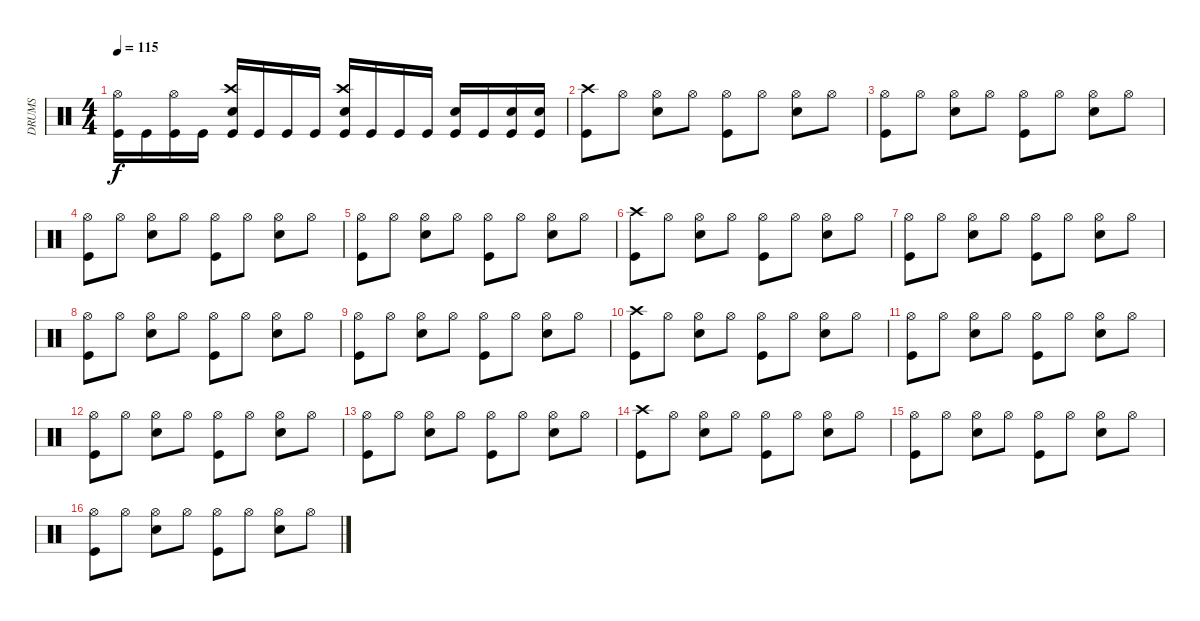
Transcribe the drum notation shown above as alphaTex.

\track ("DRUMS" "DRUMS") {instrument percussion}
\staff {score}
\articulation defaults
\ts (4 4)
\tempo 115
\clef neutral
\ks c
("Hi-Hat (open)" "Kick (hit)").16{dy f} "Kick (hit)".16 ("Hi-Hat (open)" "Kick (hit)").16 "Kick (hit)".16 ("Crash high (hit)" "Snare (hit) 2" "Kick (hit)").16 "Kick (hit)".16 "Kick (hit)".16 "Kick (hit)".16 ("Crash high (hit)" "Snare (hit) 2" "Kick (hit)").16 "Kick (hit)".16 "Kick (hit)".16 "Kick (hit)".16 ("Snare (hit) 2" "Kick (hit)").16 "Kick (hit)".16 ("Snare (hit) 2" "Kick (hit)").16 ("Snare (hit) 2" "Kick (hit)").16 |
("Crash high (hit)" "Kick (hit)").8 "Hi-Hat (open)".8 ("Hi-Hat (open)" "Snare (hit) 2").8 "Hi-Hat (open)".8 ("Hi-Hat (open)" "Kick (hit)").8 "Hi-Hat (open)".8 ("Hi-Hat (open)" "Snare (hit) 2").8 "Hi-Hat (open)".8 |
("Hi-Hat (open)" "Kick (hit)").8 "Hi-Hat (open)".8 ("Hi-Hat (open)" "Snare (hit) 2").8 "Hi-Hat (open)".8 ("Hi-Hat (open)" "Kick (hit)").8 "Hi-Hat (open)".8 ("Hi-Hat (open)" "Snare (hit) 2").8 "Hi-Hat (open)".8 |
("Hi-Hat (open)" "Kick (hit)").8 "Hi-Hat (open)".8 ("Hi-Hat (open)" "Snare (hit) 2").8 "Hi-Hat (open)".8 ("Hi-Hat (open)" "Kick (hit)").8 "Hi-Hat (open)".8 ("Hi-Hat (open)" "Snare (hit) 2").8 "Hi-Hat (open)".8 |
("Hi-Hat (open)" "Kick (hit)").8 "Hi-Hat (open)".8 ("Hi-Hat (open)" "Snare (hit) 2").8 "Hi-Hat (open)".8 ("Hi-Hat (open)" "Kick (hit)").8 "Hi-Hat (open)".8 ("Hi-Hat (open)" "Snare (hit) 2").8 "Hi-Hat (open)".8 |
("Crash high (hit)" "Kick (hit)").8 "Hi-Hat (open)".8 ("Hi-Hat (open)" "Snare (hit) 2").8 "Hi-Hat (open)".8 ("Hi-Hat (open)" "Kick (hit)").8 "Hi-Hat (open)".8 ("Hi-Hat (open)" "Snare (hit) 2").8 "Hi-Hat (open)".8 |
("Hi-Hat (open)" "Kick (hit)").8 "Hi-Hat (open)".8 ("Hi-Hat (open)" "Snare (hit) 2").8 "Hi-Hat (open)".8 ("Hi-Hat (open)" "Kick (hit)").8 "Hi-Hat (open)".8 ("Hi-Hat (open)" "Snare (hit) 2").8 "Hi-Hat (open)".8 |
("Hi-Hat (open)" "Kick (hit)").8 "Hi-Hat (open)".8 ("Hi-Hat (open)" "Snare (hit) 2").8 "Hi-Hat (open)".8 ("Hi-Hat (open)" "Kick (hit)").8 "Hi-Hat (open)".8 ("Hi-Hat (open)" "Snare (hit) 2").8 "Hi-Hat (open)".8 |
("Hi-Hat (open)" "Kick (hit)").8 "Hi-Hat (open)".8 ("Hi-Hat (open)" "Snare (hit) 2").8 "Hi-Hat (open)".8 ("Hi-Hat (open)" "Kick (hit)").8 "Hi-Hat (open)".8 ("Hi-Hat (open)" "Snare (hit) 2").8 "Hi-Hat (open)".8 |
("Crash high (hit)" "Kick (hit)").8 "Hi-Hat (open)".8 ("Hi-Hat (open)" "Snare (hit) 2").8 "Hi-Hat (open)".8 ("Hi-Hat (open)" "Kick (hit)").8 "Hi-Hat (open)".8 ("Hi-Hat (open)" "Snare (hit) 2").8 "Hi-Hat (open)".8 |
("Hi-Hat (open)" "Kick (hit)").8 "Hi-Hat (open)".8 ("Hi-Hat (open)" "Snare (hit) 2").8 "Hi-Hat (open)".8 ("Hi-Hat (open)" "Kick (hit)").8 "Hi-Hat (open)".8 ("Hi-Hat (open)" "Snare (hit) 2").8 "Hi-Hat (open)".8 |
("Hi-Hat (open)" "Kick (hit)").8 "Hi-Hat (open)".8 ("Hi-Hat (open)" "Snare (hit) 2").8 "Hi-Hat (open)".8 ("Hi-Hat (open)" "Kick (hit)").8 "Hi-Hat (open)".8 ("Hi-Hat (open)" "Snare (hit) 2").8 "Hi-Hat (open)".8 |
("Hi-Hat (open)" "Kick (hit)").8 "Hi-Hat (open)".8 ("Hi-Hat (open)" "Snare (hit) 2").8 "Hi-Hat (open)".8 ("Hi-Hat (open)" "Kick (hit)").8 "Hi-Hat (open)".8 ("Hi-Hat (open)" "Snare (hit) 2").8 "Hi-Hat (open)".8 |
("Crash high (hit)" "Kick (hit)").8 "Hi-Hat (open)".8 ("Hi-Hat (open)" "Snare (hit) 2").8 "Hi-Hat (open)".8 ("Hi-Hat (open)" "Kick (hit)").8 "Hi-Hat (open)".8 ("Hi-Hat (open)" "Snare (hit) 2").8 "Hi-Hat (open)".8 |
("Hi-Hat (open)" "Kick (hit)").8 "Hi-Hat (open)".8 ("Hi-Hat (open)" "Snare (hit) 2").8 "Hi-Hat (open)".8 ("Hi-Hat (open)" "Kick (hit)").8 "Hi-Hat (open)".8 ("Hi-Hat (open)" "Snare (hit) 2").8 "Hi-Hat (open)".8 |
("Hi-Hat (open)" "Kick (hit)").8 "Hi-Hat (open)".8 ("Hi-Hat (open)" "Snare (hit) 2").8 "Hi-Hat (open)".8 ("Hi-Hat (open)" "Kick (hit)").8 "Hi-Hat (open)".8 ("Hi-Hat (open)" "Snare (hit) 2").8 "Hi-Hat (open)".8
